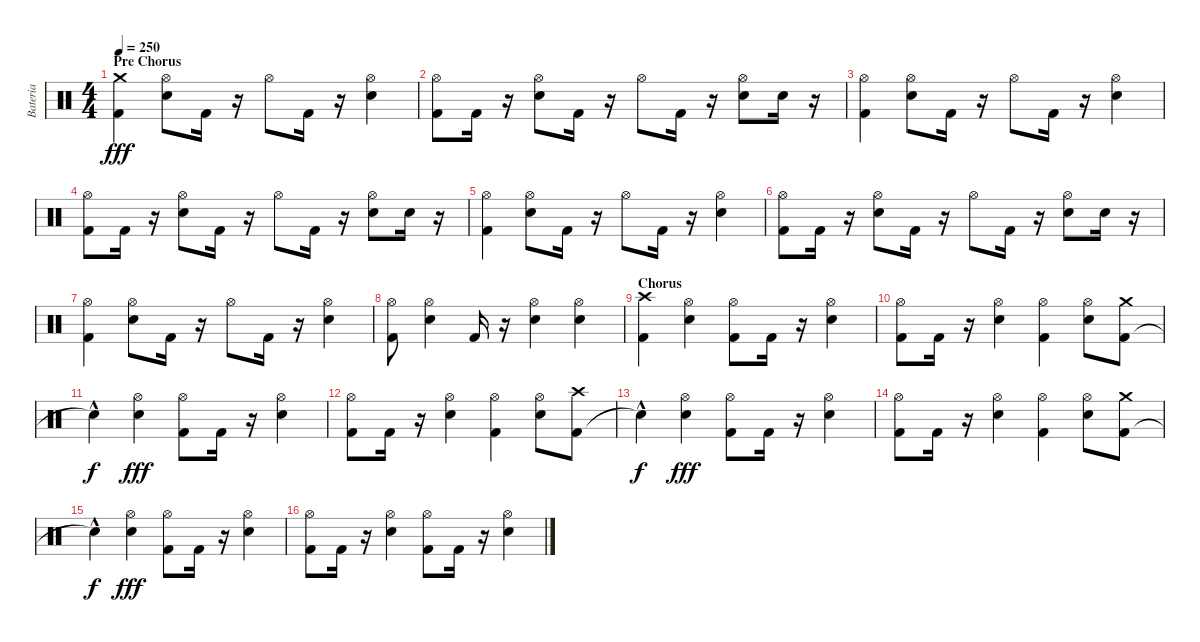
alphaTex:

\track ("Bateria" "Bateria") {instrument percussion}
\staff {score}
\articulation defaults
\ts (4 4)
\section ("" "Pre Chorus")
\tempo 250
\clef neutral
\ks c
("Crash medium (hit)" "Kick (hit) 2").4{dy fff} ("Electric Snare (hit)" "Hi-Hat (open)").8 "Kick (hit) 2".16 r.16 "Hi-Hat (open)".8 "Kick (hit) 2".16 r.16 ("Electric Snare (hit)" "Hi-Hat (open)").4 |
("Kick (hit) 2" "Hi-Hat (open)").8 "Kick (hit) 2".16 r.16 ("Electric Snare (hit)" "Hi-Hat (open)").8 "Kick (hit) 2".16 r.16 "Hi-Hat (open)".8 "Kick (hit) 2".16 r.16 ("Electric Snare (hit)" "Hi-Hat (open)").8 "Electric Snare (hit)".16 r.16 |
("Kick (hit) 2" "Hi-Hat (open)").4 ("Electric Snare (hit)" "Hi-Hat (open)").8 "Kick (hit) 2".16 r.16 "Hi-Hat (open)".8 "Kick (hit) 2".16 r.16 ("Electric Snare (hit)" "Hi-Hat (open)").4 |
("Kick (hit) 2" "Hi-Hat (open)").8 "Kick (hit) 2".16 r.16 ("Electric Snare (hit)" "Hi-Hat (open)").8 "Kick (hit) 2".16 r.16 "Hi-Hat (open)".8 "Kick (hit) 2".16 r.16 ("Electric Snare (hit)" "Hi-Hat (open)").8 "Electric Snare (hit)".16 r.16 |
("Kick (hit) 2" "Hi-Hat (open)").4 ("Electric Snare (hit)" "Hi-Hat (open)").8 "Kick (hit) 2".16 r.16 "Hi-Hat (open)".8 "Kick (hit) 2".16 r.16 ("Electric Snare (hit)" "Hi-Hat (open)").4 |
("Kick (hit) 2" "Hi-Hat (open)").8 "Kick (hit) 2".16 r.16 ("Electric Snare (hit)" "Hi-Hat (open)").8 "Kick (hit) 2".16 r.16 "Hi-Hat (open)".8 "Kick (hit) 2".16 r.16 ("Electric Snare (hit)" "Hi-Hat (open)").8 "Electric Snare (hit)".16 r.16 |
("Kick (hit) 2" "Hi-Hat (open)").4 ("Electric Snare (hit)" "Hi-Hat (open)").8 "Kick (hit) 2".16 r.16 "Hi-Hat (open)".8 "Kick (hit) 2".16 r.16 ("Electric Snare (hit)" "Hi-Hat (open)").4 |
("Kick (hit) 2" "Hi-Hat (open)").8 ("Electric Snare (hit)" "Hi-Hat (open)").4 "Kick (hit) 2".16 r.16 ("Electric Snare (hit)" "Hi-Hat (open)").4 ("Electric Snare (hit)" "Hi-Hat (open)").4 |
\section ("" "Chorus")
("Kick (hit) 2" "Crash high (hit)").4 ("Electric Snare (hit)" "Hi-Hat (open)").4 ("Kick (hit) 2" "Hi-Hat (open)").8 "Kick (hit) 2".16 r.16 ("Electric Snare (hit)" "Hi-Hat (open)").4 |
("Kick (hit) 2" "Hi-Hat (open)").8 "Kick (hit) 2".16 r.16 ("Electric Snare (hit)" "Hi-Hat (open)").4 ("Kick (hit) 2" "Hi-Hat (open)").4 ("Electric Snare (hit)" "Hi-Hat (open)").8 ("Kick (hit) 2" "Crash medium (hit)").8 |
"Snare (hit)"{hac t}.4{dy f} ("Electric Snare (hit)" "Hi-Hat (open)").4{dy fff} ("Kick (hit) 2" "Hi-Hat (open)").8 "Kick (hit) 2".16 r.16 ("Electric Snare (hit)" "Hi-Hat (open)").4 |
("Kick (hit) 2" "Hi-Hat (open)").8 "Kick (hit) 2".16 r.16 ("Electric Snare (hit)" "Hi-Hat (open)").4 ("Kick (hit) 2" "Hi-Hat (open)").4 ("Electric Snare (hit)" "Hi-Hat (open)").8 ("Kick (hit) 2" "Crash high (hit)").8 |
"Snare (hit)"{hac t}.4{dy f} ("Electric Snare (hit)" "Hi-Hat (open)").4{dy fff} ("Kick (hit) 2" "Hi-Hat (open)").8 "Kick (hit) 2".16 r.16 ("Electric Snare (hit)" "Hi-Hat (open)").4 |
("Kick (hit) 2" "Hi-Hat (open)").8 "Kick (hit) 2".16 r.16 ("Electric Snare (hit)" "Hi-Hat (open)").4 ("Kick (hit) 2" "Hi-Hat (open)").4 ("Electric Snare (hit)" "Hi-Hat (open)").8 ("Kick (hit) 2" "Crash medium (hit)").8 |
"Snare (hit)"{hac t}.4{dy f} ("Electric Snare (hit)" "Hi-Hat (open)").4{dy fff} ("Kick (hit) 2" "Hi-Hat (open)").8 "Kick (hit) 2".16 r.16 ("Electric Snare (hit)" "Hi-Hat (open)").4 |
("Kick (hit) 2" "Hi-Hat (open)").8 "Kick (hit) 2".16 r.16 ("Electric Snare (hit)" "Hi-Hat (open)").4 ("Kick (hit) 2" "Hi-Hat (open)").8 "Kick (hit) 2".16 r.16 ("Electric Snare (hit)" "Hi-Hat (open)").4
